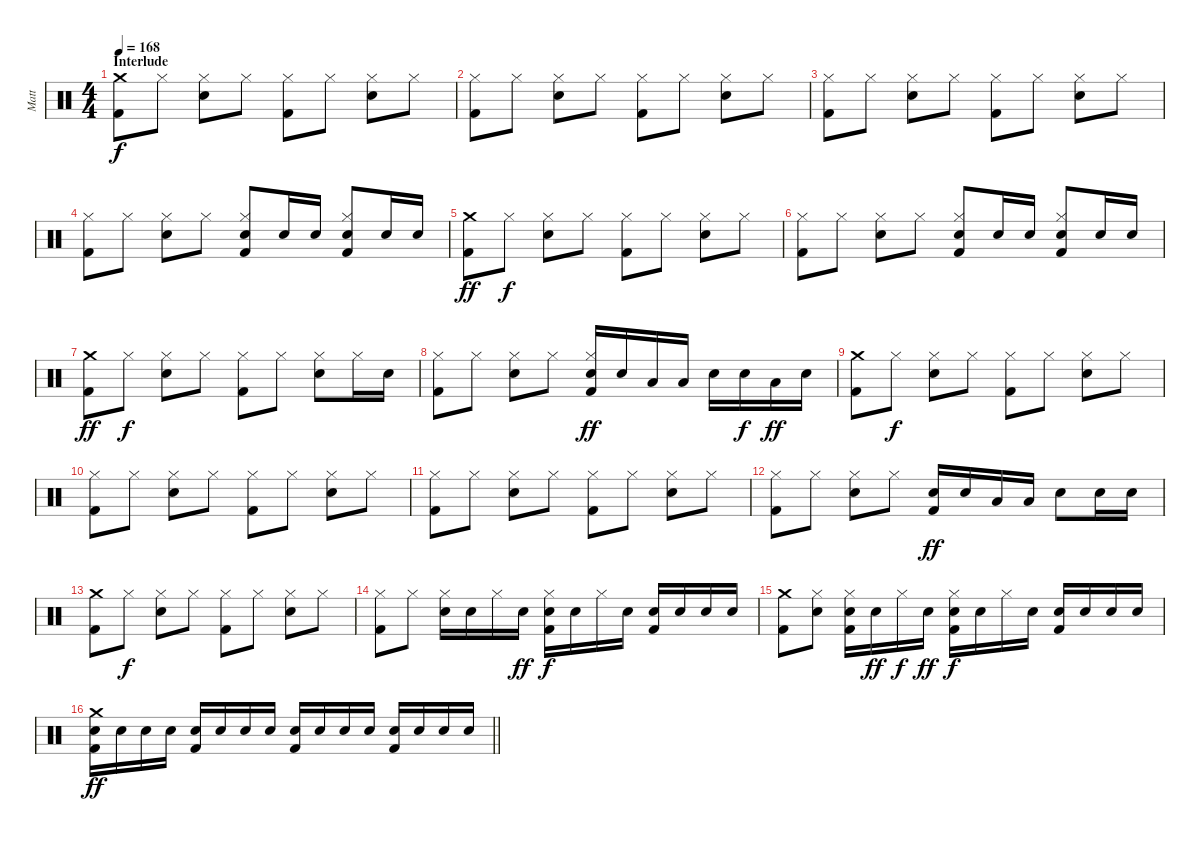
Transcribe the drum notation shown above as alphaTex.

\track ("Matt" "Matt") {instrument percussion}
\staff {score}
\articulation defaults
\ts (4 4)
\section ("" "Interlude")
\tempo 168
\clef neutral
\ks c
("Crash medium (hit)" "Kick (hit) 2").8{dy f} "Hi-Hat (closed)".8 ("Hi-Hat (closed)" "Electric Snare (hit)").8 "Hi-Hat (closed)".8 ("Hi-Hat (closed)" "Kick (hit) 2").8 "Hi-Hat (closed)".8 ("Hi-Hat (closed)" "Electric Snare (hit)").8 "Hi-Hat (closed)".8 |
("Hi-Hat (closed)" "Kick (hit) 2").8 "Hi-Hat (closed)".8 ("Hi-Hat (closed)" "Electric Snare (hit)").8 "Hi-Hat (closed)".8 ("Hi-Hat (closed)" "Kick (hit) 2").8 "Hi-Hat (closed)".8 ("Hi-Hat (closed)" "Electric Snare (hit)").8 "Hi-Hat (closed)".8 |
("Hi-Hat (closed)" "Kick (hit) 2").8 "Hi-Hat (closed)".8 ("Hi-Hat (closed)" "Electric Snare (hit)").8 "Hi-Hat (closed)".8 ("Hi-Hat (closed)" "Kick (hit) 2").8 "Hi-Hat (closed)".8 ("Hi-Hat (closed)" "Electric Snare (hit)").8 "Hi-Hat (closed)".8 |
("Hi-Hat (closed)" "Kick (hit) 2").8 "Hi-Hat (closed)".8 ("Hi-Hat (closed)" "Electric Snare (hit)").8 "Hi-Hat (closed)".8 ("Hi-Hat (closed)" "Electric Snare (hit)" "Kick (hit) 2").8 "Electric Snare (hit)".16 "Electric Snare (hit)".16 ("Hi-Hat (closed)" "Electric Snare (hit)" "Kick (hit) 2").8 "Electric Snare (hit)".16 "Electric Snare (hit)".16 |
("Crash medium (hit)" "Kick (hit) 2").8{dy ff} "Hi-Hat (closed)".8{dy f} ("Hi-Hat (closed)" "Electric Snare (hit)").8 "Hi-Hat (closed)".8 ("Hi-Hat (closed)" "Kick (hit) 2").8 "Hi-Hat (closed)".8 ("Hi-Hat (closed)" "Electric Snare (hit)").8 "Hi-Hat (closed)".8 |
("Hi-Hat (closed)" "Kick (hit) 2").8 "Hi-Hat (closed)".8 ("Hi-Hat (closed)" "Electric Snare (hit)").8 "Hi-Hat (closed)".8 ("Hi-Hat (closed)" "Electric Snare (hit)" "Kick (hit) 2").8 "Electric Snare (hit)".16 "Electric Snare (hit)".16 ("Hi-Hat (closed)" "Electric Snare (hit)" "Kick (hit) 2").8 "Electric Snare (hit)".16 "Electric Snare (hit)".16 |
("Crash medium (hit)" "Kick (hit) 2").8{dy ff} "Hi-Hat (closed)".8{dy f} ("Hi-Hat (closed)" "Electric Snare (hit)").8 "Hi-Hat (closed)".8 ("Hi-Hat (closed)" "Kick (hit) 2").8 "Hi-Hat (closed)".8 ("Hi-Hat (closed)" "Electric Snare (hit)").8 "Hi-Hat (closed)".16 "Electric Snare (hit)".16 |
("Hi-Hat (closed)" "Kick (hit) 2").8 "Hi-Hat (closed)".8 ("Hi-Hat (closed)" "Electric Snare (hit)").8 "Hi-Hat (closed)".8 ("Hi-Hat (closed)" "Electric Snare (hit)" "Kick (hit) 2").16{dy ff} "Electric Snare (hit)".16 "Low Tom (hit)".16 "Low Tom (hit)".16 "Electric Snare (hit)".16 "Electric Snare (hit)".16{dy f} "Low Tom (hit)".16{dy ff} "Electric Snare (hit)".16 |
("Crash medium (hit)" "Kick (hit) 2").8 "Hi-Hat (closed)".8{dy f} ("Hi-Hat (closed)" "Electric Snare (hit)").8 "Hi-Hat (closed)".8 ("Hi-Hat (closed)" "Kick (hit) 2").8 "Hi-Hat (closed)".8 ("Hi-Hat (closed)" "Electric Snare (hit)").8 "Hi-Hat (closed)".8 |
("Hi-Hat (closed)" "Kick (hit) 2").8 "Hi-Hat (closed)".8 ("Hi-Hat (closed)" "Electric Snare (hit)").8 "Hi-Hat (closed)".8 ("Hi-Hat (closed)" "Kick (hit) 2").8 "Hi-Hat (closed)".8 ("Hi-Hat (closed)" "Electric Snare (hit)").8 "Hi-Hat (closed)".8 |
("Hi-Hat (closed)" "Kick (hit) 2").8 "Hi-Hat (closed)".8 ("Hi-Hat (closed)" "Electric Snare (hit)").8 "Hi-Hat (closed)".8 ("Hi-Hat (closed)" "Kick (hit) 2").8 "Hi-Hat (closed)".8 ("Hi-Hat (closed)" "Electric Snare (hit)").8 "Hi-Hat (closed)".8 |
("Hi-Hat (closed)" "Kick (hit) 2").8 "Hi-Hat (closed)".8 ("Hi-Hat (closed)" "Electric Snare (hit)").8 "Hi-Hat (closed)".8 ("Electric Snare (hit)" "Kick (hit) 2").16{dy ff} "Electric Snare (hit)".16 "Low Tom (hit)".16 "Low Tom (hit)".16 "Electric Snare (hit)".8 "Electric Snare (hit)".16 "Electric Snare (hit)".16 |
("Crash medium (hit)" "Kick (hit) 2").8 "Hi-Hat (closed)".8{dy f} ("Hi-Hat (closed)" "Electric Snare (hit)").8 "Hi-Hat (closed)".8 ("Hi-Hat (closed)" "Kick (hit) 2").8 "Hi-Hat (closed)".8 ("Hi-Hat (closed)" "Electric Snare (hit)").8 "Hi-Hat (closed)".8 |
("Hi-Hat (closed)" "Kick (hit) 2").8 "Hi-Hat (closed)".8 ("Hi-Hat (closed)" "Electric Snare (hit)").16 "Electric Snare (hit)".16 "Hi-Hat (closed)".16 "Electric Snare (hit)".16{dy ff} ("Hi-Hat (closed)" "Electric Snare (hit)" "Kick (hit) 2").16{dy f} "Electric Snare (hit)".16 "Hi-Hat (closed)".16 "Electric Snare (hit)".16 ("Electric Snare (hit)" "Kick (hit) 2").16 "Electric Snare (hit)".16 "Electric Snare (hit)".16 "Electric Snare (hit)".16 |
("Crash medium (hit)" "Kick (hit) 2").8 ("Hi-Hat (closed)" "Electric Snare (hit)").8 ("Hi-Hat (closed)" "Electric Snare (hit)" "Kick (hit) 2").16 "Electric Snare (hit)".16{dy ff} "Hi-Hat (closed)".16{dy f} "Electric Snare (hit)".16{dy ff} ("Hi-Hat (closed)" "Electric Snare (hit)" "Kick (hit) 2").16{dy f} "Electric Snare (hit)".16 "Hi-Hat (closed)".16 "Electric Snare (hit)".16 ("Electric Snare (hit)" "Kick (hit) 2").16 "Electric Snare (hit)".16 "Electric Snare (hit)".16 "Electric Snare (hit)".16 |
\barLineRight lightlight
("Crash medium (hit)" "Electric Snare (hit)" "Kick (hit) 2").16{dy ff} "Electric Snare (hit)".16 "Electric Snare (hit)".16 "Electric Snare (hit)".16 ("Electric Snare (hit)" "Kick (hit) 2").16 "Electric Snare (hit)".16 "Electric Snare (hit)".16 "Electric Snare (hit)".16 ("Electric Snare (hit)" "Kick (hit) 2").16 "Electric Snare (hit)".16 "Electric Snare (hit)".16 "Electric Snare (hit)".16 ("Electric Snare (hit)" "Kick (hit) 2").16 "Electric Snare (hit)".16 "Electric Snare (hit)".16 "Electric Snare (hit)".16
